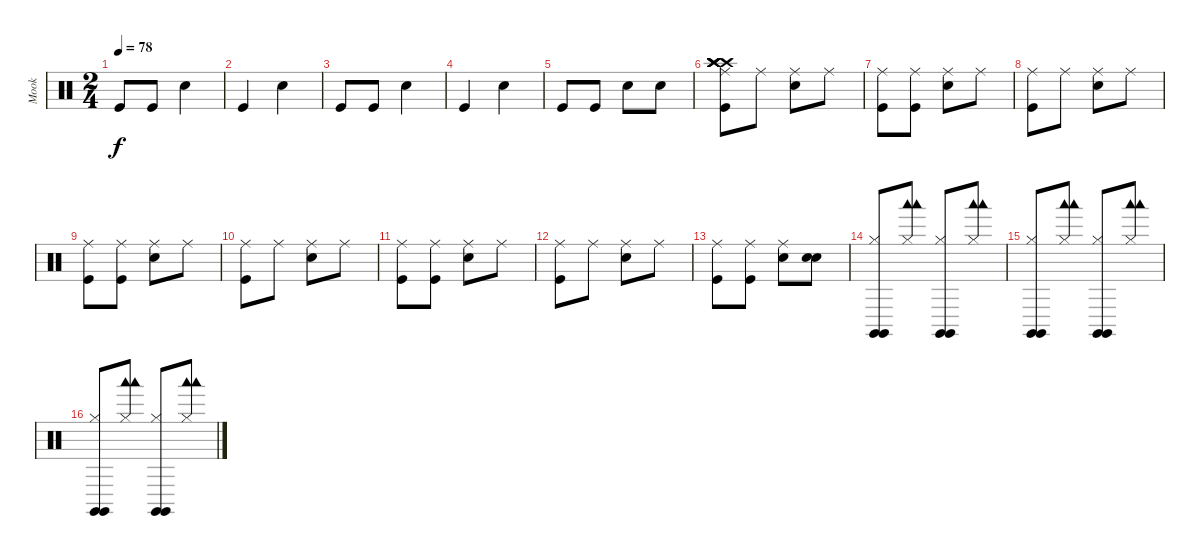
\track ("Mook" "Mook") {instrument percussion}
\staff {score}
\articulation defaults
\ts (2 4)
\tempo 78
\clef neutral
\ks c "Kick (hit)".8{dy f} "Kick (hit)".8 "Metronome (bell)".4
|
"Kick (hit)".4 "Metronome (bell)".4 |
"Kick (hit)".8 "Kick (hit)".8 "Metronome (bell)".4 |
"Kick (hit)".4 "Metronome (bell)".4 |
"Kick (hit)".8 "Kick (hit)".8 "Metronome (bell)".8 "Metronome (bell)".8 |
("Ride (middle)" "Kick (hit)" "Crash high (hit)" "Crash high (hit)" "Crash high (hit)" "Crash high (hit)").8 "Ride (middle)".8 ("Ride (middle)" "Metronome (bell)").8 "Ride (middle)".8 |
("Ride (middle)" "Kick (hit)").8 ("Ride (middle)" "Kick (hit)").8 ("Ride (middle)" "Metronome (bell)").8 "Ride (middle)".8 |
("Ride (middle)" "Kick (hit)").8 "Ride (middle)".8 ("Ride (middle)" "Metronome (bell)").8 "Ride (middle)".8 |
("Ride (middle)" "Kick (hit)").8 ("Ride (middle)" "Kick (hit)").8 ("Ride (middle)" "Metronome (bell)").8 "Ride (middle)".8 |
("Ride (middle)" "Kick (hit)").8 "Ride (middle)".8 ("Ride (middle)" "Metronome (bell)").8 "Ride (middle)".8 |
("Ride (middle)" "Kick (hit)").8 ("Ride (middle)" "Kick (hit)").8 ("Ride (middle)" "Metronome (bell)").8 "Ride (middle)".8 |
("Ride (middle)" "Kick (hit)").8 "Ride (middle)".8 ("Ride (middle)" "Metronome (bell)").8 "Ride (middle)".8 |
("Ride (middle)" "Kick (hit)").8 ("Ride (middle)" "Kick (hit)").8 ("Ride (middle)" "Metronome (bell)").8 ("Snare (hit)" "Metronome (bell)").8 |
("Hi-Hat (closed)" "Claves (hit)" "Claves (hit)").8 ("Hi-Hat (closed)" "Woodblock low (hit)" "Woodblock low (hit)").8 ("Hi-Hat (closed)" "Claves (hit)" "Claves (hit)").8 ("Hi-Hat (closed)" "Woodblock low (hit)" "Woodblock low (hit)").8 |
("Hi-Hat (closed)" "Claves (hit)" "Claves (hit)").8 ("Hi-Hat (closed)" "Woodblock low (hit)" "Woodblock low (hit)").8 ("Hi-Hat (closed)" "Claves (hit)" "Claves (hit)").8 ("Hi-Hat (closed)" "Woodblock low (hit)" "Woodblock low (hit)").8 |
("Hi-Hat (closed)" "Claves (hit)" "Claves (hit)").8 ("Hi-Hat (closed)" "Woodblock low (hit)" "Woodblock low (hit)").8 ("Hi-Hat (closed)" "Claves (hit)" "Claves (hit)").8 ("Hi-Hat (closed)" "Woodblock low (hit)" "Woodblock low (hit)").8
